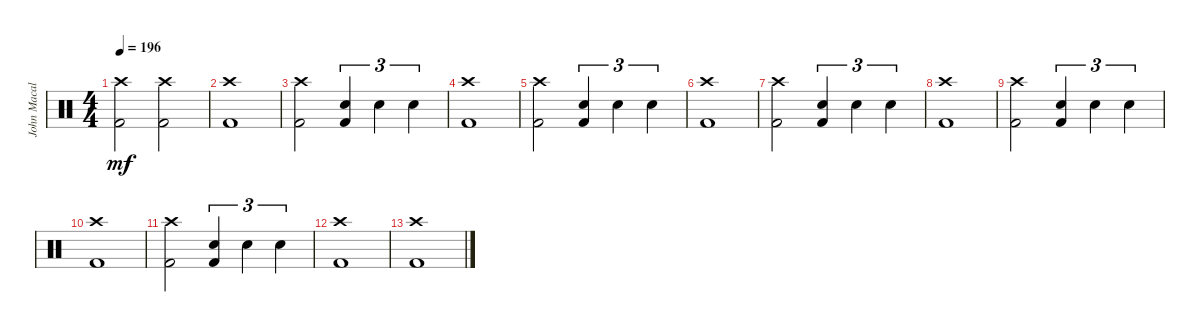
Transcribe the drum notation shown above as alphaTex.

\track ("John Macaluso" "John Macal") {instrument percussion}
\staff {score}
\articulation defaults
\ts (4 4)
\tempo 196
\clef neutral
\ks c
("Crash high (hit)" "Kick (hit) 2").2{dy mf} ("Crash high (hit)" "Kick (hit) 2").2 |
("Crash high (hit)" "Kick (hit) 2").1 |
("Crash high (hit)" "Kick (hit) 2").2 ("Electric Snare (hit)" "Kick (hit) 2").4{tu (3 2)} "Electric Snare (hit)".4{tu (3 2)} "Electric Snare (hit)".4{tu (3 2)} |
("Crash high (hit)" "Kick (hit) 2").1 |
("Crash high (hit)" "Kick (hit) 2").2 ("Electric Snare (hit)" "Kick (hit) 2").4{tu (3 2)} "Electric Snare (hit)".4{tu (3 2)} "Electric Snare (hit)".4{tu (3 2)} |
("Crash high (hit)" "Kick (hit) 2").1 |
("Crash high (hit)" "Kick (hit) 2").2 ("Electric Snare (hit)" "Kick (hit) 2").4{tu (3 2)} "Electric Snare (hit)".4{tu (3 2)} "Electric Snare (hit)".4{tu (3 2)} |
("Crash high (hit)" "Kick (hit) 2").1 |
("Crash high (hit)" "Kick (hit) 2").2 ("Electric Snare (hit)" "Kick (hit) 2").4{tu (3 2)} "Electric Snare (hit)".4{tu (3 2)} "Electric Snare (hit)".4{tu (3 2)} |
("Crash high (hit)" "Kick (hit) 2").1 |
("Crash high (hit)" "Kick (hit) 2").2 ("Electric Snare (hit)" "Kick (hit) 2").4{tu (3 2)} "Electric Snare (hit)".4{tu (3 2)} "Electric Snare (hit)".4{tu (3 2)} |
("Crash high (hit)" "Kick (hit) 2").1 |
("Crash high (hit)" "Kick (hit) 2").1
